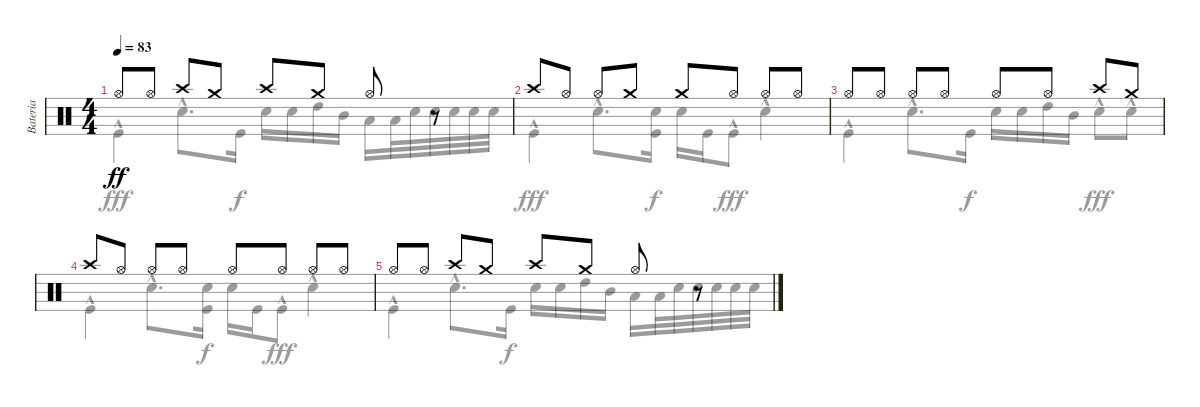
\track ("Bateria" "Bateria") {instrument percussion}
\staff {score}
\articulation defaults
\voice
\ts (4 4)
\tempo 83
\clef neutral
\ks c "Hi-Hat (open)".8{dy ff} "Hi-Hat (open)".8 "Crash high (hit)".8 "Crash medium (hit)".8 "Crash high (hit)".8 "Crash medium (hit)".8 "Hi-Hat (open)".8
r.8 |
"Crash high (hit)".8 "Hi-Hat (open)".8 "Hi-Hat (open)".8 "Crash medium (hit)".8 "Crash medium (hit)".8 "Hi-Hat (open)".8 "Hi-Hat (open)".8 "Hi-Hat (open)".8 |
"Hi-Hat (open)".8 "Hi-Hat (open)".8 "Hi-Hat (open)".8 "Hi-Hat (open)".8 "Hi-Hat (open)".8 "Hi-Hat (open)".8 "Crash high (hit)".8 "Crash medium (hit)".8 |
"Crash high (hit)".8 "Hi-Hat (open)".8 "Hi-Hat (open)".8 "Hi-Hat (open)".8 "Hi-Hat (open)".8 "Hi-Hat (open)".8 "Hi-Hat (open)".8 "Hi-Hat (open)".8 |
"Hi-Hat (open)".8 "Hi-Hat (open)".8 "Crash high (hit)".8 "Crash medium (hit)".8 "Crash high (hit)".8 "Crash medium (hit)".8 "Hi-Hat (open)".8 r.8 |
\voice
\clef neutral
\ottava regular
\simile none
\ks c "Kick (hit)"{hac}.4{dy fff} "Snare (hit) 2"{hac}.8{d} "Kick (hit)".16{dy f} "Snare (hit) 2".16 "Snare (hit) 2".16 "High Tom (hit)".16 "Mid Tom (hit)".16 "Low Tom (hit)".16 "Low Tom (hit)".32 "Snare (hit) 2".32 "Snare (hit) 2".32 "Snare (hit) 2".32 "Snare (hit) 2".32 "Snare (hit) 2".32
|
"Kick (hit)"{hac}.4{dy fff} "Snare (hit) 2"{hac}.8{d} ("Snare (hit) 2" "Kick (hit)").16{dy f} "Snare (hit) 2".16 "Kick (hit)".16 "Kick (hit)"{hac}.8{dy fff} "Snare (hit) 2"{hac}.4 |
"Kick (hit)"{hac}.4 "Snare (hit) 2"{hac}.8{d} "Kick (hit)".16{dy f} "Snare (hit) 2".16 "Snare (hit) 2".16 "High Tom (hit)".16 "Mid Tom (hit)".16 "Snare (hit) 2"{hac}.8{dy fff} "Snare (hit) 2"{hac}.8 |
"Kick (hit)"{hac}.4 "Snare (hit) 2"{hac}.8{d} ("Snare (hit) 2" "Kick (hit)").16{dy f} "Snare (hit) 2".16 "Kick (hit)".16 "Kick (hit)"{hac}.8{dy fff} "Snare (hit) 2"{hac}.4 |
"Kick (hit)"{hac}.4 "Snare (hit) 2"{hac}.8{d} "Kick (hit)".16{dy f} "Snare (hit) 2".16 "Snare (hit) 2".16 "High Tom (hit)".16 "Mid Tom (hit)".16 "Low Tom (hit)".16 "Low Tom (hit)".32 "Snare (hit) 2".32 "Snare (hit) 2".32 "Snare (hit) 2".32 "Snare (hit) 2".32 "Snare (hit) 2".32 |
